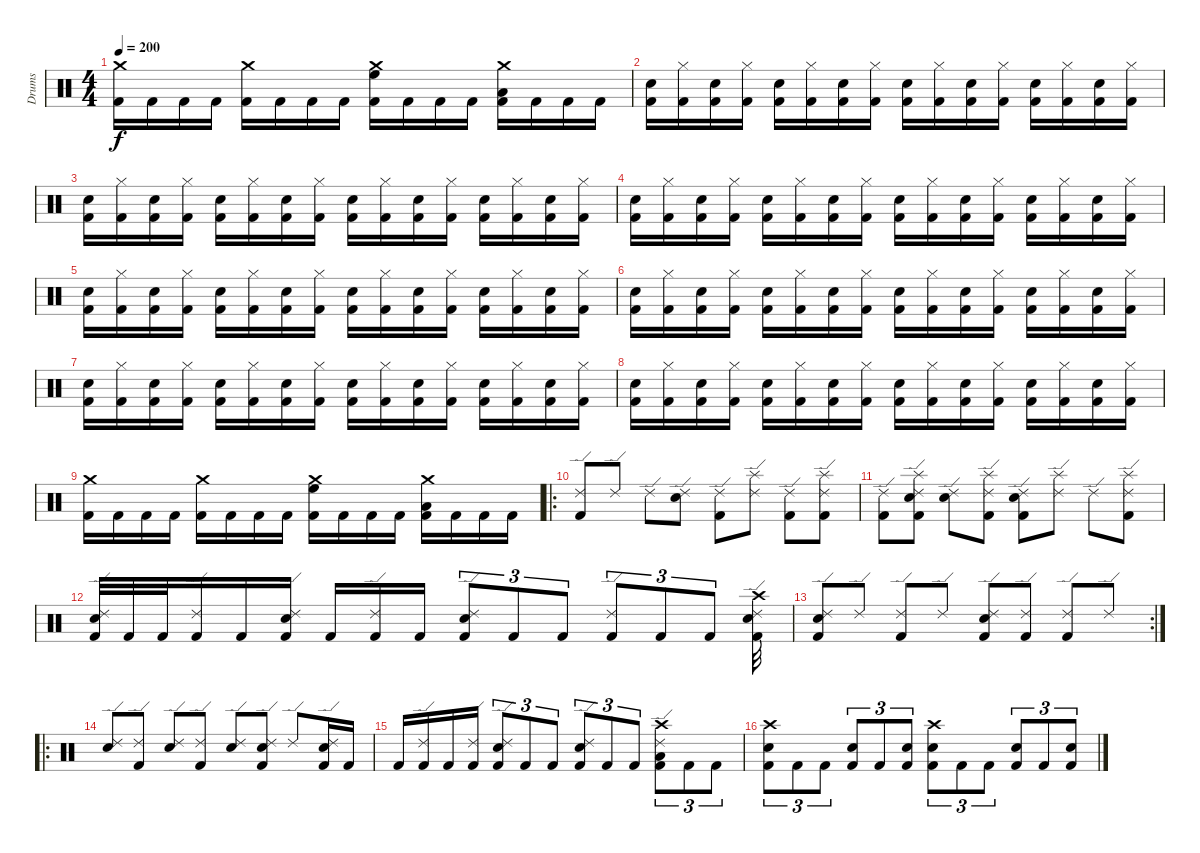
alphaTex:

\track ("Drums" "Drums") {instrument percussion}
\staff {score}
\articulation defaults
\ts (4 4)
\tempo 200
\clef neutral
\ks c
("Crash medium (hit)" "Kick (hit) 2").16{dy f} "Kick (hit) 2".16 "Kick (hit) 2".16 "Kick (hit) 2".16 ("Crash medium (hit)" "Kick (hit) 2").16 "Kick (hit) 2".16 "Kick (hit) 2".16 "Kick (hit) 2".16 ("Crash medium (hit)" "High Floor Tom (hit)" "Kick (hit) 2").16 "Kick (hit) 2".16 "Kick (hit) 2".16 "Kick (hit) 2".16 ("Crash medium (hit)" "Low Floor Tom (hit)" "Kick (hit) 2").16 "Kick (hit) 2".16 "Kick (hit) 2".16 "Kick (hit) 2".16 |
("Snare (hit) 2" "Kick (hit) 2").16 ("Hi-Hat (closed)" "Kick (hit) 2").16 ("Snare (hit) 2" "Kick (hit) 2").16 ("Hi-Hat (closed)" "Kick (hit) 2").16 ("Snare (hit) 2" "Kick (hit) 2").16 ("Hi-Hat (closed)" "Kick (hit) 2").16 ("Snare (hit) 2" "Kick (hit) 2").16 ("Hi-Hat (closed)" "Kick (hit) 2").16 ("Snare (hit) 2" "Kick (hit) 2").16 ("Hi-Hat (closed)" "Kick (hit) 2").16 ("Snare (hit) 2" "Kick (hit) 2").16 ("Hi-Hat (closed)" "Kick (hit) 2").16 ("Snare (hit) 2" "Kick (hit) 2").16 ("Hi-Hat (closed)" "Kick (hit) 2").16 ("Snare (hit) 2" "Kick (hit) 2").16 ("Hi-Hat (closed)" "Kick (hit) 2").16 |
("Snare (hit) 2" "Kick (hit) 2").16 ("Hi-Hat (closed)" "Kick (hit) 2").16 ("Snare (hit) 2" "Kick (hit) 2").16 ("Hi-Hat (closed)" "Kick (hit) 2").16 ("Snare (hit) 2" "Kick (hit) 2").16 ("Hi-Hat (closed)" "Kick (hit) 2").16 ("Snare (hit) 2" "Kick (hit) 2").16 ("Hi-Hat (closed)" "Kick (hit) 2").16 ("Snare (hit) 2" "Kick (hit) 2").16 ("Hi-Hat (closed)" "Kick (hit) 2").16 ("Snare (hit) 2" "Kick (hit) 2").16 ("Hi-Hat (closed)" "Kick (hit) 2").16 ("Snare (hit) 2" "Kick (hit) 2").16 ("Hi-Hat (closed)" "Kick (hit) 2").16 ("Snare (hit) 2" "Kick (hit) 2").16 ("Hi-Hat (closed)" "Kick (hit) 2").16 |
("Snare (hit) 2" "Kick (hit) 2").16 ("Hi-Hat (closed)" "Kick (hit) 2").16 ("Snare (hit) 2" "Kick (hit) 2").16 ("Hi-Hat (closed)" "Kick (hit) 2").16 ("Snare (hit) 2" "Kick (hit) 2").16 ("Hi-Hat (closed)" "Kick (hit) 2").16 ("Snare (hit) 2" "Kick (hit) 2").16 ("Hi-Hat (closed)" "Kick (hit) 2").16 ("Snare (hit) 2" "Kick (hit) 2").16 ("Hi-Hat (closed)" "Kick (hit) 2").16 ("Snare (hit) 2" "Kick (hit) 2").16 ("Hi-Hat (closed)" "Kick (hit) 2").16 ("Snare (hit) 2" "Kick (hit) 2").16 ("Hi-Hat (closed)" "Kick (hit) 2").16 ("Snare (hit) 2" "Kick (hit) 2").16 ("Hi-Hat (closed)" "Kick (hit) 2").16 |
("Snare (hit) 2" "Kick (hit) 2").16 ("Hi-Hat (closed)" "Kick (hit) 2").16 ("Snare (hit) 2" "Kick (hit) 2").16 ("Hi-Hat (closed)" "Kick (hit) 2").16 ("Snare (hit) 2" "Kick (hit) 2").16 ("Hi-Hat (closed)" "Kick (hit) 2").16 ("Snare (hit) 2" "Kick (hit) 2").16 ("Hi-Hat (closed)" "Kick (hit) 2").16 ("Snare (hit) 2" "Kick (hit) 2").16 ("Hi-Hat (closed)" "Kick (hit) 2").16 ("Snare (hit) 2" "Kick (hit) 2").16 ("Hi-Hat (closed)" "Kick (hit) 2").16 ("Snare (hit) 2" "Kick (hit) 2").16 ("Hi-Hat (closed)" "Kick (hit) 2").16 ("Snare (hit) 2" "Kick (hit) 2").16 ("Hi-Hat (closed)" "Kick (hit) 2").16 |
("Snare (hit) 2" "Kick (hit) 2").16 ("Hi-Hat (closed)" "Kick (hit) 2").16 ("Snare (hit) 2" "Kick (hit) 2").16 ("Hi-Hat (closed)" "Kick (hit) 2").16 ("Snare (hit) 2" "Kick (hit) 2").16 ("Hi-Hat (closed)" "Kick (hit) 2").16 ("Snare (hit) 2" "Kick (hit) 2").16 ("Hi-Hat (closed)" "Kick (hit) 2").16 ("Snare (hit) 2" "Kick (hit) 2").16 ("Hi-Hat (closed)" "Kick (hit) 2").16 ("Snare (hit) 2" "Kick (hit) 2").16 ("Hi-Hat (closed)" "Kick (hit) 2").16 ("Snare (hit) 2" "Kick (hit) 2").16 ("Hi-Hat (closed)" "Kick (hit) 2").16 ("Snare (hit) 2" "Kick (hit) 2").16 ("Hi-Hat (closed)" "Kick (hit) 2").16 |
("Snare (hit) 2" "Kick (hit) 2").16 ("Hi-Hat (closed)" "Kick (hit) 2").16 ("Snare (hit) 2" "Kick (hit) 2").16 ("Hi-Hat (closed)" "Kick (hit) 2").16 ("Snare (hit) 2" "Kick (hit) 2").16 ("Hi-Hat (closed)" "Kick (hit) 2").16 ("Snare (hit) 2" "Kick (hit) 2").16 ("Hi-Hat (closed)" "Kick (hit) 2").16 ("Snare (hit) 2" "Kick (hit) 2").16 ("Hi-Hat (closed)" "Kick (hit) 2").16 ("Snare (hit) 2" "Kick (hit) 2").16 ("Hi-Hat (closed)" "Kick (hit) 2").16 ("Snare (hit) 2" "Kick (hit) 2").16 ("Hi-Hat (closed)" "Kick (hit) 2").16 ("Snare (hit) 2" "Kick (hit) 2").16 ("Hi-Hat (closed)" "Kick (hit) 2").16 |
("Snare (hit) 2" "Kick (hit) 2").16 ("Hi-Hat (closed)" "Kick (hit) 2").16 ("Snare (hit) 2" "Kick (hit) 2").16 ("Hi-Hat (closed)" "Kick (hit) 2").16 ("Snare (hit) 2" "Kick (hit) 2").16 ("Hi-Hat (closed)" "Kick (hit) 2").16 ("Snare (hit) 2" "Kick (hit) 2").16 ("Hi-Hat (closed)" "Kick (hit) 2").16 ("Snare (hit) 2" "Kick (hit) 2").16 ("Hi-Hat (closed)" "Kick (hit) 2").16 ("Snare (hit) 2" "Kick (hit) 2").16 ("Hi-Hat (closed)" "Kick (hit) 2").16 ("Snare (hit) 2" "Kick (hit) 2").16 ("Hi-Hat (closed)" "Kick (hit) 2").16 ("Snare (hit) 2" "Kick (hit) 2").16 ("Hi-Hat (closed)" "Kick (hit) 2").16 |
("Crash medium (hit)" "Kick (hit) 2").16 "Kick (hit) 2".16 "Kick (hit) 2".16 "Kick (hit) 2".16 ("Crash medium (hit)" "Kick (hit) 2").16 "Kick (hit) 2".16 "Kick (hit) 2".16 "Kick (hit) 2".16 ("Crash medium (hit)" "High Floor Tom (hit)" "Kick (hit) 2").16 "Kick (hit) 2".16 "Kick (hit) 2".16 "Kick (hit) 2".16 ("Crash medium (hit)" "Low Floor Tom (hit)" "Kick (hit) 2").16 "Kick (hit) 2".16 "Kick (hit) 2".16 "Kick (hit) 2".16 |
\ro
("Ride (edge) 2" "Kick (hit) 2").8 "Ride (edge) 2".8 "Ride (edge) 2".8 ("Ride (edge) 2" "Snare (hit) 2").8 ("Ride (edge) 2" "Kick (hit) 2").8 ("Ride (edge) 2" "Splash (hit)").8 ("Ride (edge) 2" "Kick (hit) 2").8 ("Ride (edge) 2" "Splash (hit)" "Kick (hit) 2").8 |
("Ride (edge) 2" "Kick (hit) 2").8 ("Ride (edge) 2" "Splash (hit)" "Snare (hit) 2" "Kick (hit) 2").8 ("Ride (edge) 2" "Snare (hit) 2").8 ("Ride (edge) 2" "Splash (hit)" "Kick (hit) 2").8 ("Ride (edge) 2" "Snare (hit) 2" "Kick (hit) 2").8 ("Ride (edge) 2" "Splash (hit)").8 "Ride (edge) 2".8 ("Ride (edge) 2" "Splash (hit)" "Kick (hit) 2").8 |
("Ride (edge) 2" "Snare (hit) 2" "Kick (hit) 2").32 "Kick (hit) 2".32 "Kick (hit) 2".32 ("Ride (edge) 2" "Kick (hit) 2").16 "Kick (hit) 2".16 ("Ride (edge) 2" "Snare (hit) 2" "Kick (hit) 2").16 "Kick (hit) 2".16 ("Ride (edge) 2" "Kick (hit) 2").16 "Kick (hit) 2".16 ("Ride (edge) 2" "Snare (hit) 2" "Kick (hit) 2").8{tu (3 2)} "Kick (hit) 2".8{tu (3 2)} "Kick (hit) 2".8{tu (3 2)} ("Ride (edge) 2" "Kick (hit) 2").8{tu (3 2)} "Kick (hit) 2".8{tu (3 2)} "Kick (hit) 2".8{tu (3 2)} ("Ride (edge) 2" "Crash high (hit)" "Snare (hit) 2" "Kick (hit) 2").32 |
\rc 2
("Ride (edge) 2" "Snare (hit) 2" "Kick (hit) 2").8 "Ride (edge) 2".8 ("Ride (edge) 2" "Kick (hit) 2").8 "Ride (edge) 2".8 ("Ride (edge) 2" "Snare (hit) 2" "Kick (hit) 2").8 ("Ride (edge) 2" "Kick (hit) 2").8 ("Ride (edge) 2" "Kick (hit) 2").8 "Ride (edge) 2".8 |
\ro
("Ride (edge) 2" "Snare (hit) 2").8 ("Ride (edge) 2" "Kick (hit) 2").8 ("Ride (edge) 2" "Snare (hit) 2").8 ("Ride (edge) 2" "Kick (hit) 2").8 ("Ride (edge) 2" "Snare (hit) 2").8 ("Ride (edge) 2" "Snare (hit) 2" "Kick (hit) 2").8 "Ride (edge) 2".8 ("Ride (edge) 2" "Snare (hit) 2" "Kick (hit) 2").16 "Kick (hit) 2".16 |
"Kick (hit) 2".16 ("Ride (edge) 2" "Kick (hit) 2").16 "Kick (hit) 2".16 ("Ride (edge) 2" "Kick (hit) 2").16 ("Ride (edge) 2" "Snare (hit) 2" "Kick (hit) 2").8{tu (3 2)} "Kick (hit) 2".8{tu (3 2)} "Kick (hit) 2".8{tu (3 2)} ("Ride (edge) 2" "Snare (hit) 2" "Kick (hit) 2").8{tu (3 2)} "Kick (hit) 2".8{tu (3 2)} "Kick (hit) 2".8{tu (3 2)} ("Ride (edge) 2" "Crash high (hit)" "Low Floor Tom (hit)" "Kick (hit) 2").8{tu (3 2)} "Kick (hit) 2".8{tu (3 2)} "Kick (hit) 2".8{tu (3 2)} |
("Crash high (hit)" "Snare (hit) 2" "Kick (hit) 2").8{tu (3 2)} "Kick (hit) 2".8{tu (3 2)} "Kick (hit) 2".8{tu (3 2)} ("Snare (hit) 2" "Kick (hit) 2").8{tu (3 2)} "Kick (hit) 2".8{tu (3 2)} ("Snare (hit) 2" "Kick (hit) 2").8{tu (3 2)} ("Crash high (hit)" "Snare (hit) 2" "Kick (hit) 2").8{tu (3 2)} "Kick (hit) 2".8{tu (3 2)} "Kick (hit) 2".8{tu (3 2)} ("Snare (hit) 2" "Kick (hit) 2").8{tu (3 2)} "Kick (hit) 2".8{tu (3 2)} ("Snare (hit) 2" "Kick (hit) 2").8{tu (3 2)}
